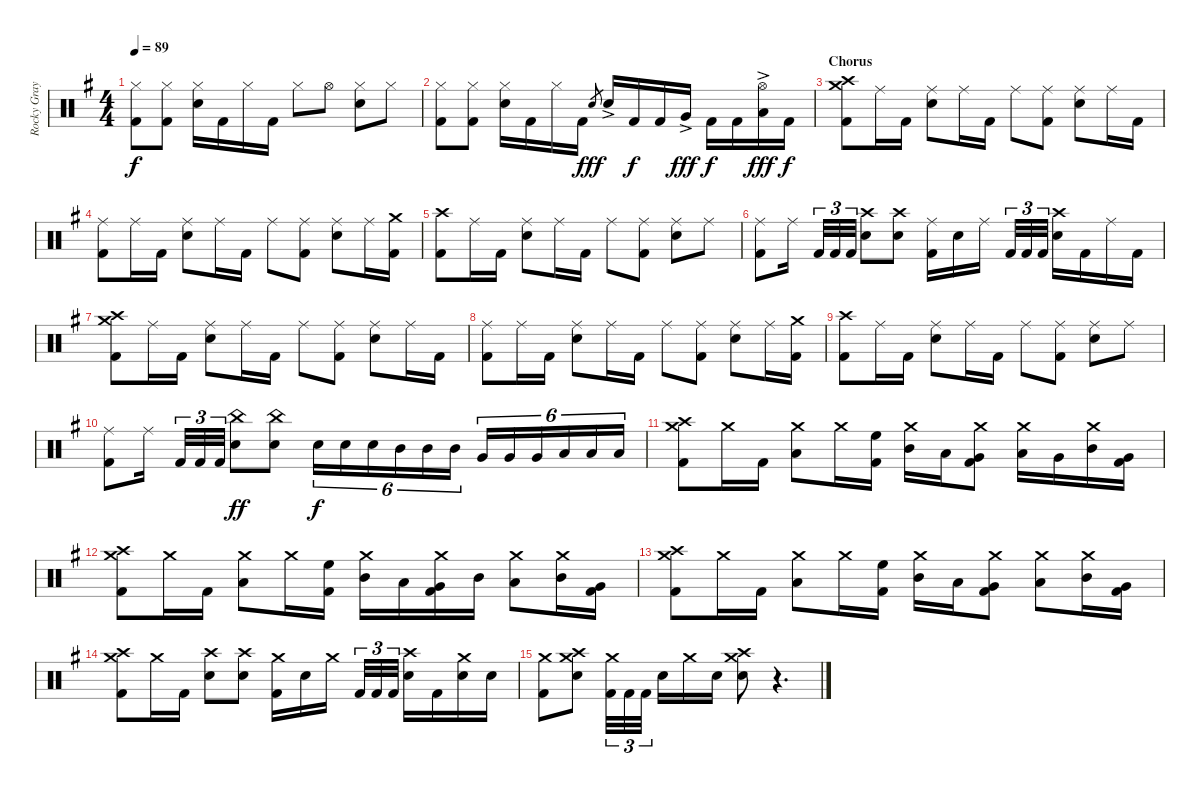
\track ("Rocky Gray" "Rocky Gray") {instrument percussion}
\staff {score}
\articulation defaults
\ts (4 4)
\tempo 89
\clef neutral
\ks g
("Hi-Hat (closed)" "Kick (hit) 2").8{dy f} ("Hi-Hat (closed)" "Kick (hit) 2").8 ("Hi-Hat (closed)" "Snare (hit) 2").16 "Kick (hit) 2".16 "Hi-Hat (closed)".16 "Kick (hit) 2".16 "Hi-Hat (closed)".8 "Hi-Hat (open)".8 ("Hi-Hat (closed)" "Snare (hit) 2").8 "Hi-Hat (closed)".8 |
("Hi-Hat (closed)" "Kick (hit) 2").8 ("Hi-Hat (closed)" "Kick (hit) 2").8 ("Hi-Hat (closed)" "Snare (hit) 2").16 "Kick (hit) 2".16 "Hi-Hat (closed)".16 "Kick (hit) 2".16 "Snare (hit) 2".8{gr dy fff} "Snare (hit) 2"{ac}.16 "Kick (hit) 2".16{dy f} "Kick (hit) 2".16 "Very Low Tom (hit)"{ac}.16{dy fff} "Kick (hit) 2".16{dy f} "Kick (hit) 2".16 ("Hi-Hat (open)"{ac} "Low Floor Tom (hit)").16{dy fff} "Kick (hit) 2".16{dy f} |
\section ("" "Chorus")
("Crash high (hit)" "Crash medium (hit)" "Kick (hit) 2").8 "Ride (middle)".16 "Kick (hit) 2".16 ("Ride (middle)" "Snare (hit) 2").8 "Ride (middle)".16 "Kick (hit) 2".16 "Ride (middle)".8 ("Ride (middle)" "Kick (hit) 2").8 ("Ride (middle)" "Snare (hit) 2").8 "Ride (middle)".16 "Kick (hit) 2".16 |
("Ride (middle)" "Kick (hit) 2").8 "Ride (middle)".16 "Kick (hit) 2".16 ("Ride (middle)" "Snare (hit) 2").8 "Ride (middle)".16 "Kick (hit) 2".16 "Ride (middle)".8 ("Ride (middle)" "Kick (hit) 2").8 ("Ride (middle)" "Snare (hit) 2").8 "Ride (middle)".16 ("Crash medium (hit)" "Kick (hit) 2").16 |
("Crash high (hit)" "Kick (hit) 2").8 "Ride (middle)".16 "Kick (hit) 2".16 ("Ride (middle)" "Snare (hit) 2").8 "Ride (middle)".16 "Kick (hit) 2".16 "Ride (middle)".8 ("Ride (middle)" "Kick (hit) 2").8 ("Ride (middle)" "Snare (hit) 2").8 "Ride (middle)".8 |
("Ride (middle)" "Kick (hit) 2").8 "Ride (middle)".16 "Kick (hit) 2".32{tu (3 2)} "Kick (hit) 2".32{tu (3 2)} "Kick (hit) 2".32{tu (3 2)} ("Crash high (hit)" "Snare (hit) 2").8 ("Crash high (hit)" "Snare (hit) 2").8 ("Ride (middle)" "Kick (hit) 2").16 "Snare (hit) 2".16 "Ride (middle)".16 "Kick (hit) 2".32{tu (3 2)} "Kick (hit) 2".32{tu (3 2)} "Kick (hit) 2".32{tu (3 2)} ("Crash high (hit)" "Snare (hit) 2").16 "Kick (hit) 2".16 "Ride (middle)".16 "Kick (hit) 2".16 |
("Crash high (hit)" "Crash medium (hit)" "Kick (hit) 2").8 "Ride (middle)".16 "Kick (hit) 2".16 ("Ride (middle)" "Snare (hit) 2").8 "Ride (middle)".16 "Kick (hit) 2".16 "Ride (middle)".8 ("Ride (middle)" "Kick (hit) 2").8 ("Ride (middle)" "Snare (hit) 2").8 "Ride (middle)".16 "Kick (hit) 2".16 |
("Ride (middle)" "Kick (hit) 2").8 "Ride (middle)".16 "Kick (hit) 2".16 ("Ride (middle)" "Snare (hit) 2").8 "Ride (middle)".16 "Kick (hit) 2".16 "Ride (middle)".8 ("Ride (middle)" "Kick (hit) 2").8 ("Ride (middle)" "Snare (hit) 2").8 "Ride (middle)".16 ("Crash medium (hit)" "Kick (hit) 2").16 |
("Crash high (hit)" "Kick (hit) 2").8 "Ride (middle)".16 "Kick (hit) 2".16 ("Ride (middle)" "Snare (hit) 2").8 "Ride (middle)".16 "Kick (hit) 2".16 "Ride (middle)".8 ("Ride (middle)" "Kick (hit) 2").8 ("Ride (middle)" "Snare (hit) 2").8 "Ride (middle)".8 |
("Ride (middle)" "Kick (hit) 2").8 "Ride (middle)".16 "Kick (hit) 2".32{tu (3 2)} "Kick (hit) 2".32{tu (3 2)} "Kick (hit) 2".32{tu (3 2)} ("China (hit)" "Snare (hit) 2").8{dy ff} ("China (hit)" "Snare (hit) 2").8 "Snare (hit) 2".16{tu (6 4) dy f} "Snare (hit) 2".16{tu (6 4)} "Snare (hit) 2".16{tu (6 4)} "Mid Tom (hit)".16{tu (6 4)} "Mid Tom (hit)".16{tu (6 4)} "Mid Tom (hit)".16{tu (6 4)} "Very Low Tom (hit)".16{tu (6 4)} "Very Low Tom (hit)".16{tu (6 4)} "Very Low Tom (hit)".16{tu (6 4)} "Low Floor Tom (hit)".16{tu (6 4)} "Low Floor Tom (hit)".16{tu (6 4)} "Low Floor Tom (hit)".16{tu (6 4)} |
("Crash high (hit)" "Crash medium (hit)" "Kick (hit) 2").8 "Crash medium (hit)".16 "Kick (hit) 2".16 ("Crash medium (hit)" "Low Tom (hit)").8 "Crash medium (hit)".16 ("High Floor Tom (hit)" "Kick (hit) 2").16 ("Crash medium (hit)" "Mid Tom (hit)").16 "Low Tom (hit)".16 ("Crash medium (hit)" "Very Low Tom (hit)" "Kick (hit) 2").8 ("Crash medium (hit)" "Low Floor Tom (hit)").16 "Very Low Tom (hit)".16 ("Crash medium (hit)" "Mid Tom (hit)").16 ("Very Low Tom (hit)" "Kick (hit) 2").16 |
("Crash high (hit)" "Crash medium (hit)" "Kick (hit) 2").8 "Crash medium (hit)".16 "Kick (hit) 2".16 ("Crash medium (hit)" "Low Tom (hit)").8 "Crash medium (hit)".16 ("High Floor Tom (hit)" "Kick (hit) 2").16 ("Crash medium (hit)" "Mid Tom (hit)").16 "Low Tom (hit)".16 ("Crash medium (hit)" "Very Low Tom (hit)" "Kick (hit) 2").16 "Mid Tom (hit)".16 ("Crash medium (hit)" "Low Floor Tom (hit)").8 ("Crash medium (hit)" "Mid Tom (hit)").16 ("Very Low Tom (hit)" "Kick (hit) 2").16 |
("Crash high (hit)" "Crash medium (hit)" "Kick (hit) 2").8 "Crash medium (hit)".16 "Kick (hit) 2".16 ("Crash medium (hit)" "Low Tom (hit)").8 "Crash medium (hit)".16 ("High Floor Tom (hit)" "Kick (hit) 2").16 ("Crash medium (hit)" "Mid Tom (hit)").16 "Low Tom (hit)".16 ("Crash medium (hit)" "Very Low Tom (hit)" "Kick (hit) 2").8 ("Crash medium (hit)" "Low Floor Tom (hit)").8 ("Crash medium (hit)" "Mid Tom (hit)").16 ("Very Low Tom (hit)" "Kick (hit) 2").16 |
("Crash high (hit)" "Crash medium (hit)" "Kick (hit) 2").8 "Crash medium (hit)".16 "Kick (hit) 2".16 ("Crash high (hit)" "Snare (hit) 2").8 ("Crash high (hit)" "Snare (hit) 2").8 ("Crash medium (hit)" "Kick (hit) 2").16 "Snare (hit) 2".16 "Crash medium (hit)".16 "Kick (hit) 2".32{tu (3 2)} "Kick (hit) 2".32{tu (3 2)} "Kick (hit) 2".32{tu (3 2)} ("Crash high (hit)" "Snare (hit) 2").16 "Kick (hit) 2".16 ("Crash medium (hit)" "Snare (hit) 2").16 "Snare (hit) 2".16 |
("Crash medium (hit)" "Kick (hit) 2").8 ("Crash high (hit)" "Crash medium (hit)" "Snare (hit) 2").8 ("Crash medium (hit)" "Kick (hit) 2").32{tu (3 2)} "Kick (hit) 2".32{tu (3 2)} "Kick (hit) 2".32{tu (3 2)} "Snare (hit) 2".16 "Crash medium (hit)".16 "Snare (hit) 2".16 ("Crash high (hit)" "Crash medium (hit)" "Snare (hit) 2").8 r.4{d}
